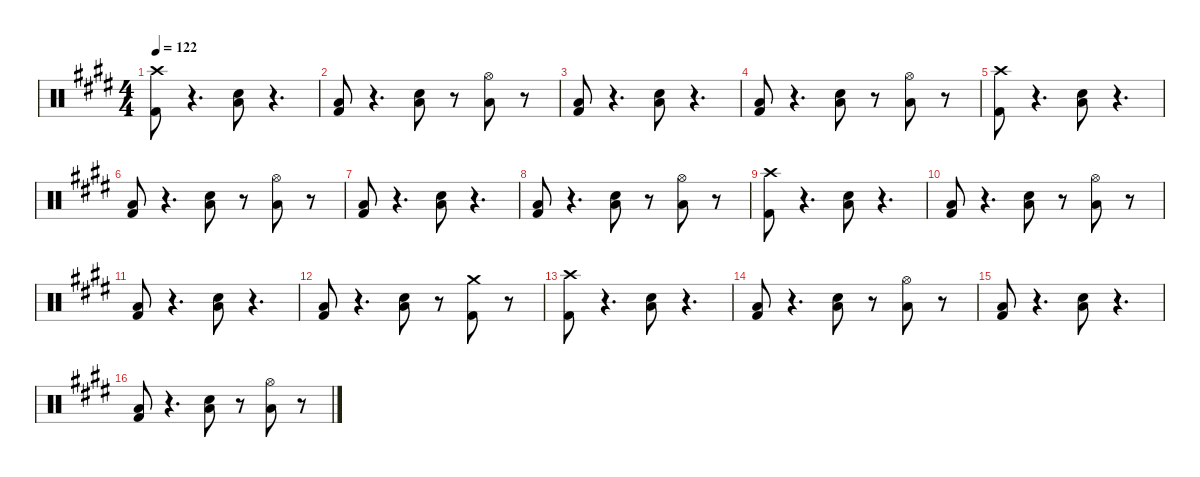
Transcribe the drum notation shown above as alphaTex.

\defaultSystemsLayout 4
\hideDynamics
\bracketExtendMode nobrackets
\otherSystemsTrackNameOrientation horizontal
\track ("Shinya" "  ") {instrument percussion}
\staff {score}
\articulation defaults
\ts (4 4)
\tempo 122
\clef neutral
\ks c#minor
("Kick (hit) 2"{acc forcenatural} "Crash high (hit)"{acc #}).8{dy fff} r.4{d} ("Snare (hit) 2"{acc forcenatural} "Low Tom (hit)"{acc forcenatural}).8 r.4{d} |
("Kick (hit) 2"{acc forcenatural} "Low Tom (hit)"{acc forcenatural}).8 r.4{d} ("Snare (hit) 2"{acc forcenatural} "Low Tom (hit)"{acc forcenatural}).8 r.8 ("Low Tom (hit)"{acc forcenatural} "Hi-Hat (open)"{acc #}).8 r.8 |
("Kick (hit) 2"{acc forcenatural} "Low Tom (hit)"{acc forcenatural}).8 r.4{d} ("Snare (hit) 2"{acc forcenatural} "Low Tom (hit)"{acc forcenatural}).8 r.4{d} |
("Kick (hit) 2"{acc forcenatural} "Low Tom (hit)"{acc forcenatural}).8 r.4{d} ("Snare (hit) 2"{acc forcenatural} "Low Tom (hit)"{acc forcenatural}).8 r.8 ("Low Tom (hit)"{acc forcenatural} "Hi-Hat (open)"{acc #}).8 r.8 |
("Kick (hit) 2"{acc forcenatural} "Crash high (hit)"{acc #}).8 r.4{d} ("Snare (hit) 2"{acc forcenatural} "Low Tom (hit)"{acc forcenatural}).8 r.4{d} |
("Kick (hit) 2"{acc forcenatural} "Low Tom (hit)"{acc forcenatural}).8 r.4{d} ("Snare (hit) 2"{acc forcenatural} "Low Tom (hit)"{acc forcenatural}).8 r.8 ("Low Tom (hit)"{acc forcenatural} "Hi-Hat (open)"{acc #}).8 r.8 |
("Kick (hit) 2"{acc forcenatural} "Low Tom (hit)"{acc forcenatural}).8 r.4{d} ("Snare (hit) 2"{acc forcenatural} "Low Tom (hit)"{acc forcenatural}).8 r.4{d} |
("Kick (hit) 2"{acc forcenatural} "Low Tom (hit)"{acc forcenatural}).8 r.4{d} ("Snare (hit) 2"{acc forcenatural} "Low Tom (hit)"{acc forcenatural}).8 r.8 ("Low Tom (hit)"{acc forcenatural} "Hi-Hat (open)"{acc #}).8 r.8 |
("Kick (hit) 2"{acc forcenatural} "Crash high (hit)"{acc #}).8 r.4{d} ("Snare (hit) 2"{acc forcenatural} "Low Tom (hit)"{acc forcenatural}).8 r.4{d} |
("Kick (hit) 2"{acc forcenatural} "Low Tom (hit)"{acc forcenatural}).8 r.4{d} ("Snare (hit) 2"{acc forcenatural} "Low Tom (hit)"{acc forcenatural}).8 r.8 ("Low Tom (hit)"{acc forcenatural} "Hi-Hat (open)"{acc #}).8 r.8 |
("Kick (hit) 2"{acc forcenatural} "Low Tom (hit)"{acc forcenatural}).8 r.4{d} ("Snare (hit) 2"{acc forcenatural} "Low Tom (hit)"{acc forcenatural}).8 r.4{d} |
("Kick (hit) 2"{acc forcenatural} "Low Tom (hit)"{acc forcenatural}).8 r.4{d} ("Snare (hit) 2"{acc forcenatural} "Low Tom (hit)"{acc forcenatural}).8 r.8 ("Kick (hit) 2"{acc forcenatural} "Crash medium (hit)"{acc forcenatural}).8 r.8 |
("Kick (hit) 2"{acc forcenatural} "Crash high (hit)"{acc #}).8 r.4{d} ("Snare (hit) 2"{acc forcenatural} "Low Tom (hit)"{acc forcenatural}).8 r.4{d} |
("Kick (hit) 2"{acc forcenatural} "Low Tom (hit)"{acc forcenatural}).8 r.4{d} ("Snare (hit) 2"{acc forcenatural} "Low Tom (hit)"{acc forcenatural}).8 r.8 ("Low Tom (hit)"{acc forcenatural} "Hi-Hat (open)"{acc #}).8 r.8 |
("Kick (hit) 2"{acc forcenatural} "Low Tom (hit)"{acc forcenatural}).8 r.4{d} ("Snare (hit) 2"{acc forcenatural} "Low Tom (hit)"{acc forcenatural}).8 r.4{d} |
("Kick (hit) 2"{acc forcenatural} "Low Tom (hit)"{acc forcenatural}).8 r.4{d} ("Snare (hit) 2"{acc forcenatural} "Low Tom (hit)"{acc forcenatural}).8 r.8 ("Low Tom (hit)"{acc forcenatural} "Hi-Hat (open)"{acc #}).8 r.8
